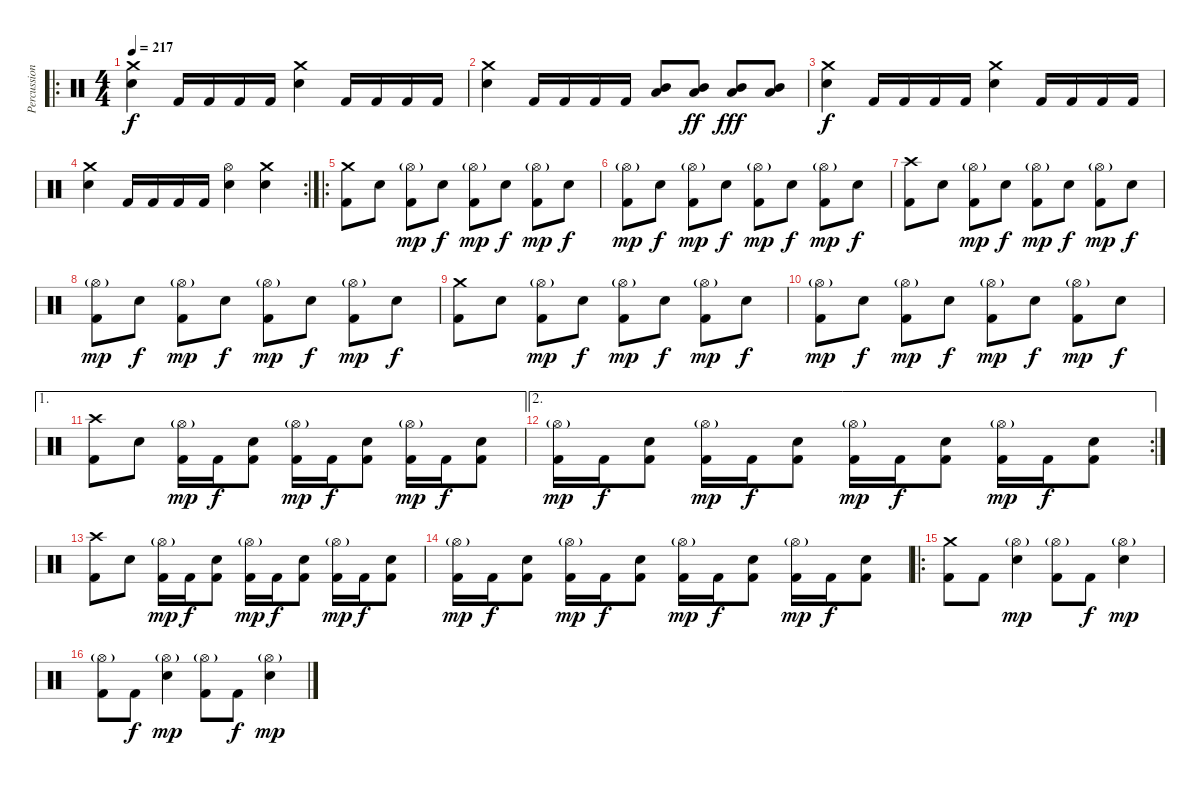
\track ("Percussion" "Percussion") {instrument percussion}
\staff {score}
\articulation defaults
\ro
\ts (4 4)
\tempo 217
\clef neutral
\ks c
("Crash medium (hit)" "Electric Snare (hit)").4{dy f} "Kick (hit) 2".16 "Kick (hit) 2".16 "Kick (hit) 2".16 "Kick (hit) 2".16 ("Crash medium (hit)" "Electric Snare (hit)").4 "Kick (hit) 2".16 "Kick (hit) 2".16 "Kick (hit) 2".16 "Kick (hit) 2".16 |
("Crash medium (hit)" "Electric Snare (hit)").4 "Kick (hit) 2".16 "Kick (hit) 2".16 "Kick (hit) 2".16 "Kick (hit) 2".16 ("Mid Tom (hit)" "Low Tom (hit)").8 ("Mid Tom (hit)" "Low Tom (hit)").8{dy ff} ("Mid Tom (hit)" "Low Tom (hit)").8{dy fff} ("Mid Tom (hit)" "Low Tom (hit)").8 |
("Crash medium (hit)" "Electric Snare (hit)").4{dy f} "Kick (hit) 2".16 "Kick (hit) 2".16 "Kick (hit) 2".16 "Kick (hit) 2".16 ("Crash medium (hit)" "Electric Snare (hit)").4 "Kick (hit) 2".16 "Kick (hit) 2".16 "Kick (hit) 2".16 "Kick (hit) 2".16 |
\rc 2
("Crash medium (hit)" "Electric Snare (hit)").4 "Kick (hit) 2".16 "Kick (hit) 2".16 "Kick (hit) 2".16 "Kick (hit) 2".16 ("Hi-Hat (open)" "Electric Snare (hit)").4 ("Crash medium (hit)" "Electric Snare (hit)").4 |
\ro
("Crash medium (hit)" "Kick (hit) 2").8 "Electric Snare (hit)".8 ("Hi-Hat (open)"{g} "Kick (hit) 2").8{dy mp} "Electric Snare (hit)".8{dy f} ("Hi-Hat (open)"{g} "Kick (hit) 2").8{dy mp} "Electric Snare (hit)".8{dy f} ("Hi-Hat (open)"{g} "Kick (hit) 2").8{dy mp} "Electric Snare (hit)".8{dy f} |
("Hi-Hat (open)"{g} "Kick (hit) 2").8{dy mp} "Electric Snare (hit)".8{dy f} ("Hi-Hat (open)"{g} "Kick (hit) 2").8{dy mp} "Electric Snare (hit)".8{dy f} ("Hi-Hat (open)"{g} "Kick (hit) 2").8{dy mp} "Electric Snare (hit)".8{dy f} ("Hi-Hat (open)"{g} "Kick (hit) 2").8{dy mp} "Electric Snare (hit)".8{dy f} |
("Crash high (hit)" "Kick (hit) 2").8 "Electric Snare (hit)".8 ("Hi-Hat (open)"{g} "Kick (hit) 2").8{dy mp} "Electric Snare (hit)".8{dy f} ("Hi-Hat (open)"{g} "Kick (hit) 2").8{dy mp} "Electric Snare (hit)".8{dy f} ("Hi-Hat (open)"{g} "Kick (hit) 2").8{dy mp} "Electric Snare (hit)".8{dy f} |
("Hi-Hat (open)"{g} "Kick (hit) 2").8{dy mp} "Electric Snare (hit)".8{dy f} ("Hi-Hat (open)"{g} "Kick (hit) 2").8{dy mp} "Electric Snare (hit)".8{dy f} ("Hi-Hat (open)"{g} "Kick (hit) 2").8{dy mp} "Electric Snare (hit)".8{dy f} ("Hi-Hat (open)"{g} "Kick (hit) 2").8{dy mp} "Electric Snare (hit)".8{dy f} |
("Crash medium (hit)" "Kick (hit) 2").8 "Electric Snare (hit)".8 ("Hi-Hat (open)"{g} "Kick (hit) 2").8{dy mp} "Electric Snare (hit)".8{dy f} ("Hi-Hat (open)"{g} "Kick (hit) 2").8{dy mp} "Electric Snare (hit)".8{dy f} ("Hi-Hat (open)"{g} "Kick (hit) 2").8{dy mp} "Electric Snare (hit)".8{dy f} |
("Hi-Hat (open)"{g} "Kick (hit) 2").8{dy mp} "Electric Snare (hit)".8{dy f} ("Hi-Hat (open)"{g} "Kick (hit) 2").8{dy mp} "Electric Snare (hit)".8{dy f} ("Hi-Hat (open)"{g} "Kick (hit) 2").8{dy mp} "Electric Snare (hit)".8{dy f} ("Hi-Hat (open)"{g} "Kick (hit) 2").8{dy mp} "Electric Snare (hit)".8{dy f} |
\ae 1
("Crash high (hit)" "Kick (hit) 2").8 "Electric Snare (hit)".8 ("Hi-Hat (open)"{g} "Kick (hit) 2").16{dy mp} "Kick (hit) 2".16{dy f} ("Electric Snare (hit)" "Kick (hit) 2").8 ("Hi-Hat (open)"{g} "Kick (hit) 2").16{dy mp} "Kick (hit) 2".16{dy f} ("Electric Snare (hit)" "Kick (hit) 2").8 ("Hi-Hat (open)"{g} "Kick (hit) 2").16{dy mp} "Kick (hit) 2".16{dy f} ("Electric Snare (hit)" "Kick (hit) 2").8 |
\ae 2
\rc 2
("Hi-Hat (open)"{g} "Kick (hit) 2").16{dy mp} "Kick (hit) 2".16{dy f} ("Electric Snare (hit)" "Kick (hit) 2").8 ("Hi-Hat (open)"{g} "Kick (hit) 2").16{dy mp} "Kick (hit) 2".16{dy f} ("Electric Snare (hit)" "Kick (hit) 2").8 ("Hi-Hat (open)"{g} "Kick (hit) 2").16{dy mp} "Kick (hit) 2".16{dy f} ("Electric Snare (hit)" "Kick (hit) 2").8 ("Hi-Hat (open)"{g} "Kick (hit) 2").16{dy mp} "Kick (hit) 2".16{dy f} ("Electric Snare (hit)" "Kick (hit) 2").8 |
("Crash high (hit)" "Kick (hit) 2").8 "Electric Snare (hit)".8 ("Hi-Hat (open)"{g} "Kick (hit) 2").16{dy mp} "Kick (hit) 2".16{dy f} ("Electric Snare (hit)" "Kick (hit) 2").8 ("Hi-Hat (open)"{g} "Kick (hit) 2").16{dy mp} "Kick (hit) 2".16{dy f} ("Electric Snare (hit)" "Kick (hit) 2").8 ("Hi-Hat (open)"{g} "Kick (hit) 2").16{dy mp} "Kick (hit) 2".16{dy f} ("Electric Snare (hit)" "Kick (hit) 2").8 |
("Hi-Hat (open)"{g} "Kick (hit) 2").16{dy mp} "Kick (hit) 2".16{dy f} ("Electric Snare (hit)" "Kick (hit) 2").8 ("Hi-Hat (open)"{g} "Kick (hit) 2").16{dy mp} "Kick (hit) 2".16{dy f} ("Electric Snare (hit)" "Kick (hit) 2").8 ("Hi-Hat (open)"{g} "Kick (hit) 2").16{dy mp} "Kick (hit) 2".16{dy f} ("Electric Snare (hit)" "Kick (hit) 2").8 ("Hi-Hat (open)"{g} "Kick (hit) 2").16{dy mp} "Kick (hit) 2".16{dy f} ("Electric Snare (hit)" "Kick (hit) 2").8 |
\ro
("Crash medium (hit)" "Kick (hit) 2").8 "Kick (hit) 2".8 ("Hi-Hat (open)"{g} "Electric Snare (hit)").4{dy mp} ("Hi-Hat (open)"{g} "Kick (hit) 2").8 "Kick (hit) 2".8{dy f} ("Hi-Hat (open)"{g} "Electric Snare (hit)").4{dy mp} |
("Hi-Hat (open)"{g} "Kick (hit) 2").8 "Kick (hit) 2".8{dy f} ("Hi-Hat (open)"{g} "Electric Snare (hit)").4{dy mp} ("Hi-Hat (open)"{g} "Kick (hit) 2").8 "Kick (hit) 2".8{dy f} ("Hi-Hat (open)"{g} "Electric Snare (hit)").4{dy mp}
